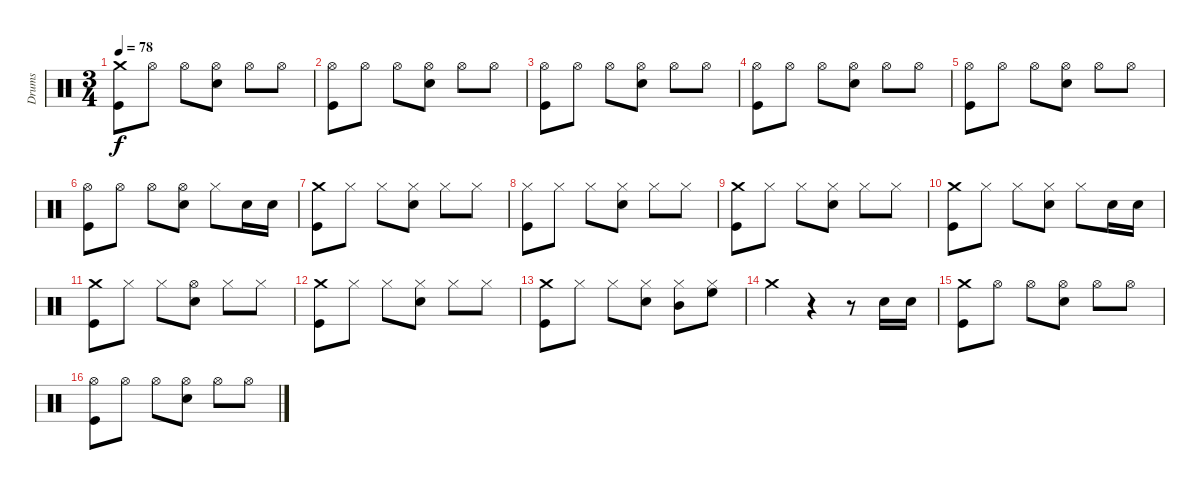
\track ("Drums" "Drums") {instrument percussion}
\staff {score}
\articulation defaults
\ts (3 4)
\tempo 78
\clef neutral
\ks c
("Crash medium (hit)" "Kick (hit)").8{dy f} "Hi-Hat (open)".8 "Hi-Hat (open)".8 ("Hi-Hat (open)" "Snare (hit) 2").8 "Hi-Hat (open)".8 "Hi-Hat (open)".8 |
("Hi-Hat (open)" "Kick (hit)").8 "Hi-Hat (open)".8 "Hi-Hat (open)".8 ("Hi-Hat (open)" "Snare (hit) 2").8 "Hi-Hat (open)".8 "Hi-Hat (open)".8 |
("Hi-Hat (open)" "Kick (hit)").8 "Hi-Hat (open)".8 "Hi-Hat (open)".8 ("Hi-Hat (open)" "Snare (hit) 2").8 "Hi-Hat (open)".8 "Hi-Hat (open)".8 |
("Hi-Hat (open)" "Kick (hit)").8 "Hi-Hat (open)".8 "Hi-Hat (open)".8 ("Hi-Hat (open)" "Snare (hit) 2").8 "Hi-Hat (open)".8 "Hi-Hat (open)".8 |
("Hi-Hat (open)" "Kick (hit)").8 "Hi-Hat (open)".8 "Hi-Hat (open)".8 ("Hi-Hat (open)" "Snare (hit) 2").8 "Hi-Hat (open)".8 "Hi-Hat (open)".8 |
("Hi-Hat (open)" "Kick (hit)").8 "Hi-Hat (open)".8 "Hi-Hat (open)".8 ("Hi-Hat (open)" "Snare (hit) 2").8 "Hi-Hat (closed)".8 "Snare (hit) 2".16 "Snare (hit) 2".16 |
("Crash medium (hit)" "Kick (hit)").8 "Hi-Hat (closed)".8 "Hi-Hat (closed)".8 ("Hi-Hat (closed)" "Snare (hit) 2").8 "Hi-Hat (closed)".8 "Hi-Hat (closed)".8 |
("Hi-Hat (closed)" "Kick (hit)").8 "Hi-Hat (closed)".8 "Hi-Hat (closed)".8 ("Hi-Hat (closed)" "Snare (hit) 2").8 "Hi-Hat (closed)".8 "Hi-Hat (closed)".8 |
("Crash medium (hit)" "Kick (hit)").8 "Hi-Hat (closed)".8 "Hi-Hat (closed)".8 ("Hi-Hat (closed)" "Snare (hit) 2").8 "Hi-Hat (closed)".8 "Hi-Hat (closed)".8 |
("Crash medium (hit)" "Kick (hit)").8 "Hi-Hat (closed)".8 "Hi-Hat (closed)".8 ("Hi-Hat (closed)" "Snare (hit) 2").8 "Hi-Hat (closed)".8 "Snare (hit) 2".16 "Snare (hit) 2".16 |
("Crash medium (hit)" "Kick (hit)").8 "Hi-Hat (closed)".8 "Hi-Hat (closed)".8 ("Hi-Hat (open)" "Snare (hit) 2").8 "Hi-Hat (closed)".8 "Hi-Hat (closed)".8 |
("Crash medium (hit)" "Kick (hit)").8 "Hi-Hat (closed)".8 "Hi-Hat (closed)".8 ("Hi-Hat (closed)" "Snare (hit) 2").8 "Hi-Hat (closed)".8 "Hi-Hat (closed)".8 |
("Crash medium (hit)" "Kick (hit)").8 "Hi-Hat (closed)".8 "Hi-Hat (closed)".8 ("Hi-Hat (closed)" "Snare (hit) 2").8 ("Hi-Hat (closed)" "Mid Tom (hit)").8 ("Hi-Hat (closed)" "High Floor Tom (hit)").8 |
"Crash medium (hit)".4 r.4 r.8 "Snare (hit) 2".16 "Snare (hit) 2".16 |
("Crash medium (hit)" "Kick (hit)").8 "Hi-Hat (open)".8 "Hi-Hat (open)".8 ("Hi-Hat (open)" "Snare (hit) 2").8 "Hi-Hat (open)".8 "Hi-Hat (open)".8 |
("Hi-Hat (open)" "Kick (hit)").8 "Hi-Hat (open)".8 "Hi-Hat (open)".8 ("Hi-Hat (open)" "Snare (hit) 2").8 "Hi-Hat (open)".8 "Hi-Hat (open)".8
